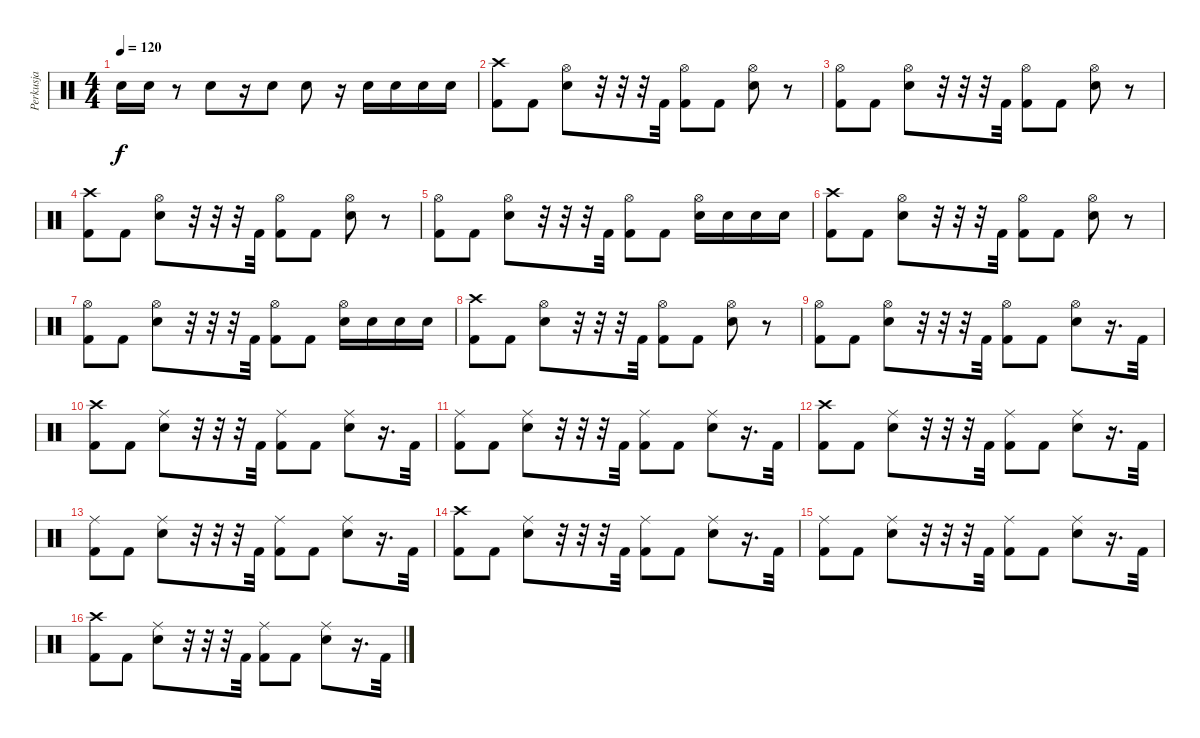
\track ("Perkusja" "Perkusja") {instrument percussion}
\staff {score}
\articulation defaults
\ts (4 4)
\tempo 120
\clef neutral
\ks c "Electric Snare (hit)".16{dy f} "Electric Snare (hit)".16
r.8 "Electric Snare (hit)".8 r.16 "Electric Snare (hit)".8 "Electric Snare (hit)".8 r.16 "Electric Snare (hit)".16 "Electric Snare (hit)".16 "Electric Snare (hit)".16 "Electric Snare (hit)".16 |
("Crash high (hit)" "Kick (hit) 2").8 "Kick (hit) 2".8 ("Hi-Hat (open)" "Electric Snare (hit)").8 r.32 r.32 r.32 "Kick (hit) 2".32 ("Hi-Hat (open)" "Kick (hit) 2").8 "Kick (hit) 2".8 ("Hi-Hat (open)" "Electric Snare (hit)").8 r.8 |
("Hi-Hat (open)" "Kick (hit) 2").8 "Kick (hit) 2".8 ("Hi-Hat (open)" "Electric Snare (hit)").8 r.32 r.32 r.32 "Kick (hit) 2".32 ("Hi-Hat (open)" "Kick (hit) 2").8 "Kick (hit) 2".8 ("Hi-Hat (open)" "Electric Snare (hit)").8 r.8 |
("Crash high (hit)" "Kick (hit) 2").8 "Kick (hit) 2".8 ("Hi-Hat (open)" "Electric Snare (hit)").8 r.32 r.32 r.32 "Kick (hit) 2".32 ("Hi-Hat (open)" "Kick (hit) 2").8 "Kick (hit) 2".8 ("Hi-Hat (open)" "Electric Snare (hit)").8 r.8 |
("Hi-Hat (open)" "Kick (hit) 2").8 "Kick (hit) 2".8 ("Hi-Hat (open)" "Electric Snare (hit)").8 r.32 r.32 r.32 "Kick (hit) 2".32 ("Hi-Hat (open)" "Kick (hit) 2").8 "Kick (hit) 2".8 ("Hi-Hat (open)" "Electric Snare (hit)").16 "Electric Snare (hit)".16 "Electric Snare (hit)".16 "Electric Snare (hit)".16 |
("Crash high (hit)" "Kick (hit) 2").8 "Kick (hit) 2".8 ("Hi-Hat (open)" "Electric Snare (hit)").8 r.32 r.32 r.32 "Kick (hit) 2".32 ("Hi-Hat (open)" "Kick (hit) 2").8 "Kick (hit) 2".8 ("Hi-Hat (open)" "Electric Snare (hit)").8 r.8 |
("Hi-Hat (open)" "Kick (hit) 2").8 "Kick (hit) 2".8 ("Hi-Hat (open)" "Electric Snare (hit)").8 r.32 r.32 r.32 "Kick (hit) 2".32 ("Hi-Hat (open)" "Kick (hit) 2").8 "Kick (hit) 2".8 ("Hi-Hat (open)" "Electric Snare (hit)").16 "Electric Snare (hit)".16 "Electric Snare (hit)".16 "Electric Snare (hit)".16 |
("Crash high (hit)" "Kick (hit) 2").8 "Kick (hit) 2".8 ("Hi-Hat (open)" "Electric Snare (hit)").8 r.32 r.32 r.32 "Kick (hit) 2".32 ("Hi-Hat (open)" "Kick (hit) 2").8 "Kick (hit) 2".8 ("Hi-Hat (open)" "Electric Snare (hit)").8 r.8 |
("Hi-Hat (open)" "Kick (hit) 2").8 "Kick (hit) 2".8 ("Hi-Hat (open)" "Electric Snare (hit)").8 r.32 r.32 r.32 "Kick (hit) 2".32 ("Hi-Hat (open)" "Kick (hit) 2").8 "Kick (hit) 2".8 ("Hi-Hat (open)" "Electric Snare (hit)").8 r.16{d} "Kick (hit) 2".32 |
("Crash high (hit)" "Kick (hit) 2").8 "Kick (hit) 2".8 ("Ride (middle)" "Electric Snare (hit)").8 r.32 r.32 r.32 "Kick (hit) 2".32 ("Ride (middle)" "Kick (hit) 2").8 "Kick (hit) 2".8 ("Ride (middle)" "Electric Snare (hit)").8 r.16{d} "Kick (hit) 2".32 |
("Ride (middle)" "Kick (hit) 2").8 "Kick (hit) 2".8 ("Ride (middle)" "Electric Snare (hit)").8 r.32 r.32 r.32 "Kick (hit) 2".32 ("Ride (middle)" "Kick (hit) 2").8 "Kick (hit) 2".8 ("Ride (middle)" "Electric Snare (hit)").8 r.16{d} "Kick (hit) 2".32 |
("Crash high (hit)" "Kick (hit) 2").8 "Kick (hit) 2".8 ("Ride (middle)" "Electric Snare (hit)").8 r.32 r.32 r.32 "Kick (hit) 2".32 ("Ride (middle)" "Kick (hit) 2").8 "Kick (hit) 2".8 ("Ride (middle)" "Electric Snare (hit)").8 r.16{d} "Kick (hit) 2".32 |
("Ride (middle)" "Kick (hit) 2").8 "Kick (hit) 2".8 ("Ride (middle)" "Electric Snare (hit)").8 r.32 r.32 r.32 "Kick (hit) 2".32 ("Ride (middle)" "Kick (hit) 2").8 "Kick (hit) 2".8 ("Ride (middle)" "Electric Snare (hit)").8 r.16{d} "Kick (hit) 2".32 |
("Crash high (hit)" "Kick (hit) 2").8 "Kick (hit) 2".8 ("Ride (middle)" "Electric Snare (hit)").8 r.32 r.32 r.32 "Kick (hit) 2".32 ("Ride (middle)" "Kick (hit) 2").8 "Kick (hit) 2".8 ("Ride (middle)" "Electric Snare (hit)").8 r.16{d} "Kick (hit) 2".32 |
("Ride (middle)" "Kick (hit) 2").8 "Kick (hit) 2".8 ("Ride (middle)" "Electric Snare (hit)").8 r.32 r.32 r.32 "Kick (hit) 2".32 ("Ride (middle)" "Kick (hit) 2").8 "Kick (hit) 2".8 ("Ride (middle)" "Electric Snare (hit)").8 r.16{d} "Kick (hit) 2".32 |
("Crash high (hit)" "Kick (hit) 2").8 "Kick (hit) 2".8 ("Ride (middle)" "Electric Snare (hit)").8 r.32 r.32 r.32 "Kick (hit) 2".32 ("Ride (middle)" "Kick (hit) 2").8 "Kick (hit) 2".8 ("Ride (middle)" "Electric Snare (hit)").8 r.16{d} "Kick (hit) 2".32
